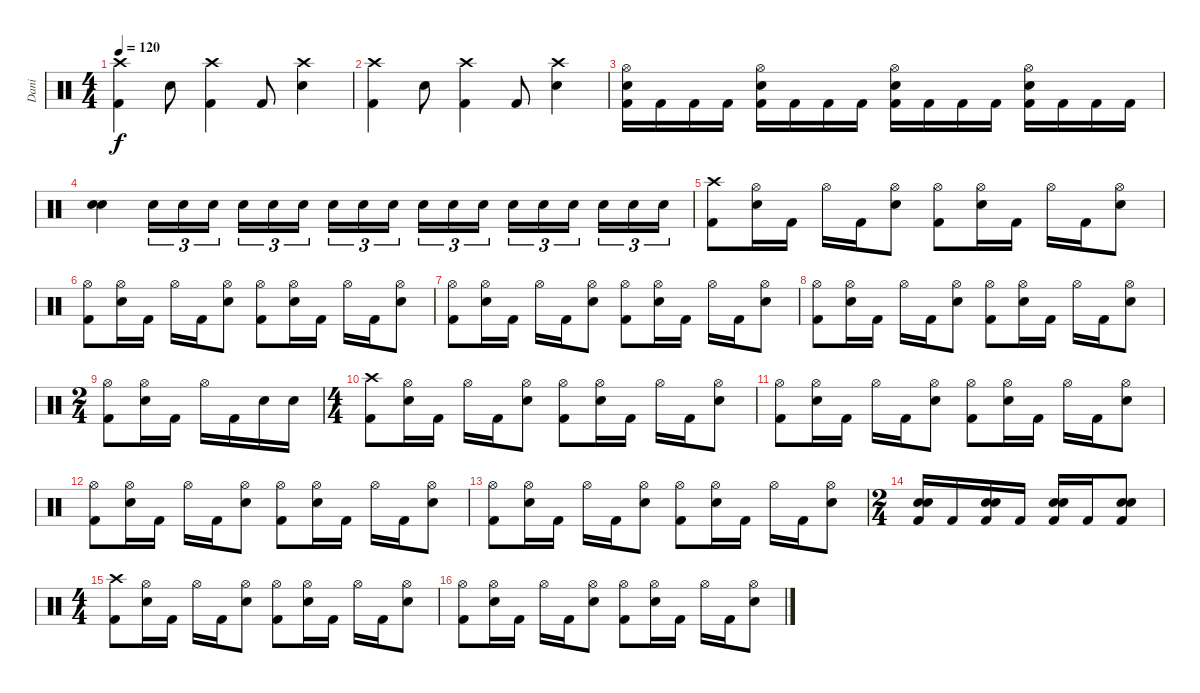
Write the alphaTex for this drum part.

\track ("Dani" "Dani") {instrument percussion}
\staff {score}
\articulation defaults
\ts (4 4)
\tempo 120
\clef neutral
\ks c
("Crash high (hit)" "Kick (hit) 2").4{dy f} "Snare (hit) 2".8 ("Crash high (hit)" "Kick (hit) 2").4 "Kick (hit) 2".8 ("Crash high (hit)" "Snare (hit) 2").4 |
("Crash high (hit)" "Kick (hit) 2").4 "Snare (hit) 2".8 ("Crash high (hit)" "Kick (hit) 2").4 "Kick (hit) 2".8 ("Crash high (hit)" "Snare (hit) 2").4 |
("Hi-Hat (open)" "Snare (hit) 2" "Kick (hit) 2").16 "Kick (hit) 2".16 "Kick (hit) 2".16 "Kick (hit) 2".16 ("Hi-Hat (open)" "Snare (hit) 2" "Kick (hit) 2").16 "Kick (hit) 2".16 "Kick (hit) 2".16 "Kick (hit) 2".16 ("Hi-Hat (open)" "Snare (hit) 2" "Kick (hit) 2").16 "Kick (hit) 2".16 "Kick (hit) 2".16 "Kick (hit) 2".16 ("Hi-Hat (open)" "Snare (hit) 2" "Kick (hit) 2").16 "Kick (hit) 2".16 "Kick (hit) 2".16 "Kick (hit) 2".16 |
("Snare (hit) 2" "Snare (hit) 2").4{bd 120} "Snare (hit) 2".16{tu (3 2)} "Snare (hit) 2".16{tu (3 2)} "Snare (hit) 2".16{tu (3 2)} "Snare (hit) 2".16{tu (3 2)} "Snare (hit) 2".16{tu (3 2)} "Snare (hit) 2".16{tu (3 2)} "Snare (hit) 2".16{tu (3 2)} "Snare (hit) 2".16{tu (3 2)} "Snare (hit) 2".16{tu (3 2)} "Snare (hit) 2".16{tu (3 2)} "Snare (hit) 2".16{tu (3 2)} "Snare (hit) 2".16{tu (3 2)} "Snare (hit) 2".16{tu (3 2)} "Snare (hit) 2".16{tu (3 2)} "Snare (hit) 2".16{tu (3 2)} "Snare (hit) 2".16{tu (3 2)} "Snare (hit) 2".16{tu (3 2)} "Snare (hit) 2".16{tu (3 2)} |
("Crash high (hit)" "Kick (hit) 2").8 ("Hi-Hat (open)" "Snare (hit) 2").16 "Kick (hit) 2".16 "Hi-Hat (open)".16 "Kick (hit) 2".16 ("Hi-Hat (open)" "Snare (hit) 2").8 ("Hi-Hat (open)" "Kick (hit) 2").8 ("Hi-Hat (open)" "Snare (hit) 2").16 "Kick (hit) 2".16 "Hi-Hat (open)".16 "Kick (hit) 2".16 ("Hi-Hat (open)" "Snare (hit) 2").8 |
("Hi-Hat (open)" "Kick (hit) 2").8 ("Hi-Hat (open)" "Snare (hit) 2").16 "Kick (hit) 2".16 "Hi-Hat (open)".16 "Kick (hit) 2".16 ("Hi-Hat (open)" "Snare (hit) 2").8 ("Hi-Hat (open)" "Kick (hit) 2").8 ("Hi-Hat (open)" "Snare (hit) 2").16 "Kick (hit) 2".16 "Hi-Hat (open)".16 "Kick (hit) 2".16 ("Hi-Hat (open)" "Snare (hit) 2").8 |
("Hi-Hat (open)" "Kick (hit) 2").8 ("Hi-Hat (open)" "Snare (hit) 2").16 "Kick (hit) 2".16 "Hi-Hat (open)".16 "Kick (hit) 2".16 ("Hi-Hat (open)" "Snare (hit) 2").8 ("Hi-Hat (open)" "Kick (hit) 2").8 ("Hi-Hat (open)" "Snare (hit) 2").16 "Kick (hit) 2".16 "Hi-Hat (open)".16 "Kick (hit) 2".16 ("Hi-Hat (open)" "Snare (hit) 2").8 |
("Hi-Hat (open)" "Kick (hit) 2").8 ("Hi-Hat (open)" "Snare (hit) 2").16 "Kick (hit) 2".16 "Hi-Hat (open)".16 "Kick (hit) 2".16 ("Hi-Hat (open)" "Snare (hit) 2").8 ("Hi-Hat (open)" "Kick (hit) 2").8 ("Hi-Hat (open)" "Snare (hit) 2").16 "Kick (hit) 2".16 "Hi-Hat (open)".16 "Kick (hit) 2".16 ("Hi-Hat (open)" "Snare (hit) 2").8 |
\ts (2 4)
("Hi-Hat (open)" "Kick (hit) 2").8 ("Hi-Hat (open)" "Snare (hit) 2").16 "Kick (hit) 2".16 "Hi-Hat (open)".16 "Kick (hit) 2".16 "Snare (hit) 2".16 "Snare (hit) 2".16 |
\ts (4 4)
("Crash high (hit)" "Kick (hit) 2").8 ("Hi-Hat (open)" "Snare (hit) 2").16 "Kick (hit) 2".16 "Hi-Hat (open)".16 "Kick (hit) 2".16 ("Hi-Hat (open)" "Snare (hit) 2").8 ("Hi-Hat (open)" "Kick (hit) 2").8 ("Hi-Hat (open)" "Snare (hit) 2").16 "Kick (hit) 2".16 "Hi-Hat (open)".16 "Kick (hit) 2".16 ("Hi-Hat (open)" "Snare (hit) 2").8 |
("Hi-Hat (open)" "Kick (hit) 2").8 ("Hi-Hat (open)" "Snare (hit) 2").16 "Kick (hit) 2".16 "Hi-Hat (open)".16 "Kick (hit) 2".16 ("Hi-Hat (open)" "Snare (hit) 2").8 ("Hi-Hat (open)" "Kick (hit) 2").8 ("Hi-Hat (open)" "Snare (hit) 2").16 "Kick (hit) 2".16 "Hi-Hat (open)".16 "Kick (hit) 2".16 ("Hi-Hat (open)" "Snare (hit) 2").8 |
("Hi-Hat (open)" "Kick (hit) 2").8 ("Hi-Hat (open)" "Snare (hit) 2").16 "Kick (hit) 2".16 "Hi-Hat (open)".16 "Kick (hit) 2".16 ("Hi-Hat (open)" "Snare (hit) 2").8 ("Hi-Hat (open)" "Kick (hit) 2").8 ("Hi-Hat (open)" "Snare (hit) 2").16 "Kick (hit) 2".16 "Hi-Hat (open)".16 "Kick (hit) 2".16 ("Hi-Hat (open)" "Snare (hit) 2").8 |
("Hi-Hat (open)" "Kick (hit) 2").8 ("Hi-Hat (open)" "Snare (hit) 2").16 "Kick (hit) 2".16 "Hi-Hat (open)".16 "Kick (hit) 2".16 ("Hi-Hat (open)" "Snare (hit) 2").8 ("Hi-Hat (open)" "Kick (hit) 2").8 ("Hi-Hat (open)" "Snare (hit) 2").16 "Kick (hit) 2".16 "Hi-Hat (open)".16 "Kick (hit) 2".16 ("Hi-Hat (open)" "Snare (hit) 2").8 |
\ts (2 4)
("Snare (hit) 2" "Snare (hit) 2" "Kick (hit) 2").16{bd 240} "Kick (hit) 2".16 ("Snare (hit) 2" "Snare (hit) 2" "Kick (hit) 2").16{bd 240} "Kick (hit) 2".16 ("Snare (hit) 2" "Snare (hit) 2" "Kick (hit) 2").16{bd 240} "Kick (hit) 2".16 ("Snare (hit) 2" "Snare (hit) 2" "Kick (hit) 2").8{bd 240} |
\ts (4 4)
("Crash high (hit)" "Kick (hit) 2").8 ("Hi-Hat (open)" "Snare (hit) 2").16 "Kick (hit) 2".16 "Hi-Hat (open)".16 "Kick (hit) 2".16 ("Hi-Hat (open)" "Snare (hit) 2").8 ("Hi-Hat (open)" "Kick (hit) 2").8 ("Hi-Hat (open)" "Snare (hit) 2").16 "Kick (hit) 2".16 "Hi-Hat (open)".16 "Kick (hit) 2".16 ("Hi-Hat (open)" "Snare (hit) 2").8 |
("Hi-Hat (open)" "Kick (hit) 2").8 ("Hi-Hat (open)" "Snare (hit) 2").16 "Kick (hit) 2".16 "Hi-Hat (open)".16 "Kick (hit) 2".16 ("Hi-Hat (open)" "Snare (hit) 2").8 ("Hi-Hat (open)" "Kick (hit) 2").8 ("Hi-Hat (open)" "Snare (hit) 2").16 "Kick (hit) 2".16 "Hi-Hat (open)".16 "Kick (hit) 2".16 ("Hi-Hat (open)" "Snare (hit) 2").8
